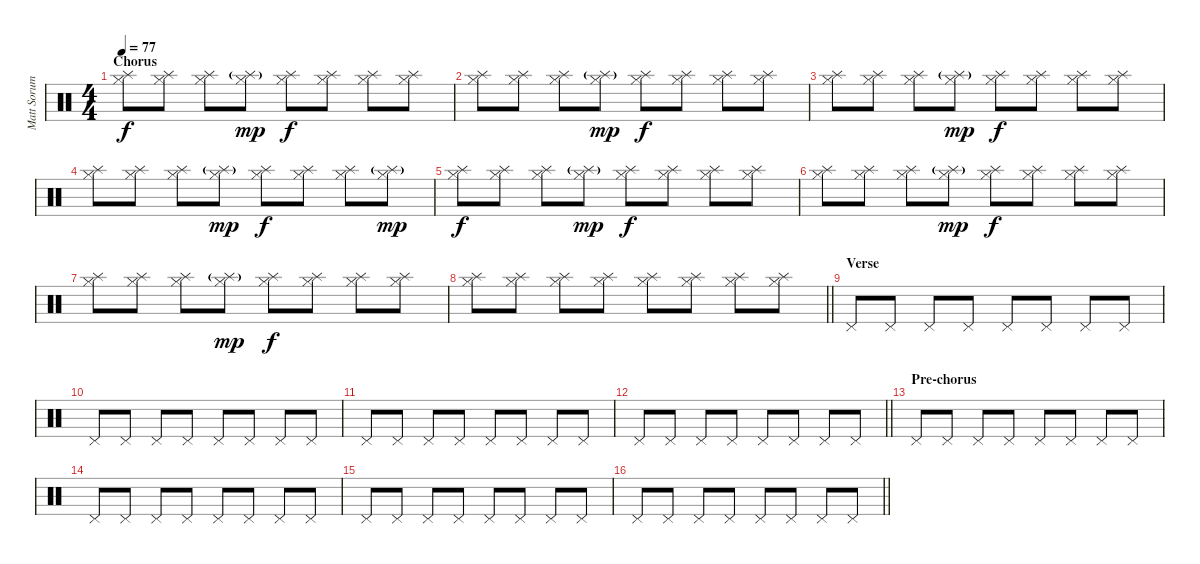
\track ("Matt Sorum (Drums)" "Matt Sorum") {instrument percussion}
\staff {score}
\articulation defaults
\ts (4 4)
\section ("" "Chorus")
\tempo 77
\clef neutral
\ks c
("Hi-Hat (closed)" "Splash (hit)").8{dy f} ("Hi-Hat (closed)" "Splash (hit)").8 ("Hi-Hat (closed)" "Splash (hit)").8 ("Hi-Hat (closed)" "Splash (hit)"{g}).8{dy mp} ("Hi-Hat (closed)" "Splash (hit)").8{dy f} ("Hi-Hat (closed)" "Splash (hit)").8 ("Hi-Hat (closed)" "Splash (hit)").8 ("Hi-Hat (closed)" "Splash (hit)").8 |
("Hi-Hat (closed)" "Splash (hit)").8 ("Hi-Hat (closed)" "Splash (hit)").8 ("Hi-Hat (closed)" "Splash (hit)").8 ("Hi-Hat (closed)" "Splash (hit)"{g}).8{dy mp} ("Hi-Hat (closed)" "Splash (hit)").8{dy f} ("Hi-Hat (closed)" "Splash (hit)").8 ("Hi-Hat (closed)" "Splash (hit)").8 ("Hi-Hat (closed)" "Splash (hit)").8 |
("Hi-Hat (closed)" "Splash (hit)").8 ("Hi-Hat (closed)" "Splash (hit)").8 ("Hi-Hat (closed)" "Splash (hit)").8 ("Hi-Hat (closed)" "Splash (hit)"{g}).8{dy mp} ("Hi-Hat (closed)" "Splash (hit)").8{dy f} ("Hi-Hat (closed)" "Splash (hit)").8 ("Hi-Hat (closed)" "Splash (hit)").8 ("Hi-Hat (closed)" "Splash (hit)").8 |
("Hi-Hat (closed)" "Splash (hit)").8 ("Hi-Hat (closed)" "Splash (hit)").8 ("Hi-Hat (closed)" "Splash (hit)").8 ("Hi-Hat (closed)" "Splash (hit)"{g}).8{dy mp} ("Hi-Hat (closed)" "Splash (hit)").8{dy f} ("Hi-Hat (closed)" "Splash (hit)").8 ("Hi-Hat (closed)" "Splash (hit)").8 ("Hi-Hat (closed)" "Splash (hit)"{g}).8{dy mp} |
("Hi-Hat (closed)" "Splash (hit)").8{dy f} ("Hi-Hat (closed)" "Splash (hit)").8 ("Hi-Hat (closed)" "Splash (hit)").8 ("Hi-Hat (closed)" "Splash (hit)"{g}).8{dy mp} ("Hi-Hat (closed)" "Splash (hit)").8{dy f} ("Hi-Hat (closed)" "Splash (hit)").8 ("Hi-Hat (closed)" "Splash (hit)").8 ("Hi-Hat (closed)" "Splash (hit)").8 |
("Hi-Hat (closed)" "Splash (hit)").8 ("Hi-Hat (closed)" "Splash (hit)").8 ("Hi-Hat (closed)" "Splash (hit)").8 ("Hi-Hat (closed)" "Splash (hit)"{g}).8{dy mp} ("Hi-Hat (closed)" "Splash (hit)").8{dy f} ("Hi-Hat (closed)" "Splash (hit)").8 ("Hi-Hat (closed)" "Splash (hit)").8 ("Hi-Hat (closed)" "Splash (hit)").8 |
("Hi-Hat (closed)" "Splash (hit)").8 ("Hi-Hat (closed)" "Splash (hit)").8 ("Hi-Hat (closed)" "Splash (hit)").8 ("Hi-Hat (closed)" "Splash (hit)"{g}).8{dy mp} ("Hi-Hat (closed)" "Splash (hit)").8{dy f} ("Hi-Hat (closed)" "Splash (hit)").8 ("Hi-Hat (closed)" "Splash (hit)").8 ("Hi-Hat (closed)" "Splash (hit)").8 |
\barLineRight lightlight
("Hi-Hat (closed)" "Splash (hit)").8 ("Hi-Hat (closed)" "Splash (hit)").8 ("Hi-Hat (closed)" "Splash (hit)").8 ("Hi-Hat (closed)" "Splash (hit)").8 ("Hi-Hat (closed)" "Splash (hit)").8 ("Hi-Hat (closed)" "Splash (hit)").8 ("Hi-Hat (closed)" "Splash (hit)").8 ("Hi-Hat (closed)" "Splash (hit)").8 |
\section ("" "Verse")
"Pedal Hi-Hat (hit)".8 "Pedal Hi-Hat (hit)".8 "Pedal Hi-Hat (hit)".8 "Pedal Hi-Hat (hit)".8 "Pedal Hi-Hat (hit)".8 "Pedal Hi-Hat (hit)".8 "Pedal Hi-Hat (hit)".8 "Pedal Hi-Hat (hit)".8 |
"Pedal Hi-Hat (hit)".8 "Pedal Hi-Hat (hit)".8 "Pedal Hi-Hat (hit)".8 "Pedal Hi-Hat (hit)".8 "Pedal Hi-Hat (hit)".8 "Pedal Hi-Hat (hit)".8 "Pedal Hi-Hat (hit)".8 "Pedal Hi-Hat (hit)".8 |
"Pedal Hi-Hat (hit)".8 "Pedal Hi-Hat (hit)".8 "Pedal Hi-Hat (hit)".8 "Pedal Hi-Hat (hit)".8 "Pedal Hi-Hat (hit)".8 "Pedal Hi-Hat (hit)".8 "Pedal Hi-Hat (hit)".8 "Pedal Hi-Hat (hit)".8 |
\barLineRight lightlight "Pedal Hi-Hat (hit)".8 "Pedal Hi-Hat (hit)".8 "Pedal Hi-Hat (hit)".8 "Pedal Hi-Hat (hit)".8 "Pedal Hi-Hat (hit)".8 "Pedal Hi-Hat (hit)".8 "Pedal Hi-Hat (hit)".8 "Pedal Hi-Hat (hit)".8
|
\section ("" "Pre-chorus")
"Pedal Hi-Hat (hit)".8 "Pedal Hi-Hat (hit)".8 "Pedal Hi-Hat (hit)".8 "Pedal Hi-Hat (hit)".8 "Pedal Hi-Hat (hit)".8 "Pedal Hi-Hat (hit)".8 "Pedal Hi-Hat (hit)".8 "Pedal Hi-Hat (hit)".8 |
"Pedal Hi-Hat (hit)".8 "Pedal Hi-Hat (hit)".8 "Pedal Hi-Hat (hit)".8 "Pedal Hi-Hat (hit)".8 "Pedal Hi-Hat (hit)".8 "Pedal Hi-Hat (hit)".8 "Pedal Hi-Hat (hit)".8 "Pedal Hi-Hat (hit)".8 |
"Pedal Hi-Hat (hit)".8 "Pedal Hi-Hat (hit)".8 "Pedal Hi-Hat (hit)".8 "Pedal Hi-Hat (hit)".8 "Pedal Hi-Hat (hit)".8 "Pedal Hi-Hat (hit)".8 "Pedal Hi-Hat (hit)".8 "Pedal Hi-Hat (hit)".8 |
\barLineRight lightlight "Pedal Hi-Hat (hit)".8 "Pedal Hi-Hat (hit)".8 "Pedal Hi-Hat (hit)".8 "Pedal Hi-Hat (hit)".8 "Pedal Hi-Hat (hit)".8 "Pedal Hi-Hat (hit)".8 "Pedal Hi-Hat (hit)".8 "Pedal Hi-Hat (hit)".8
